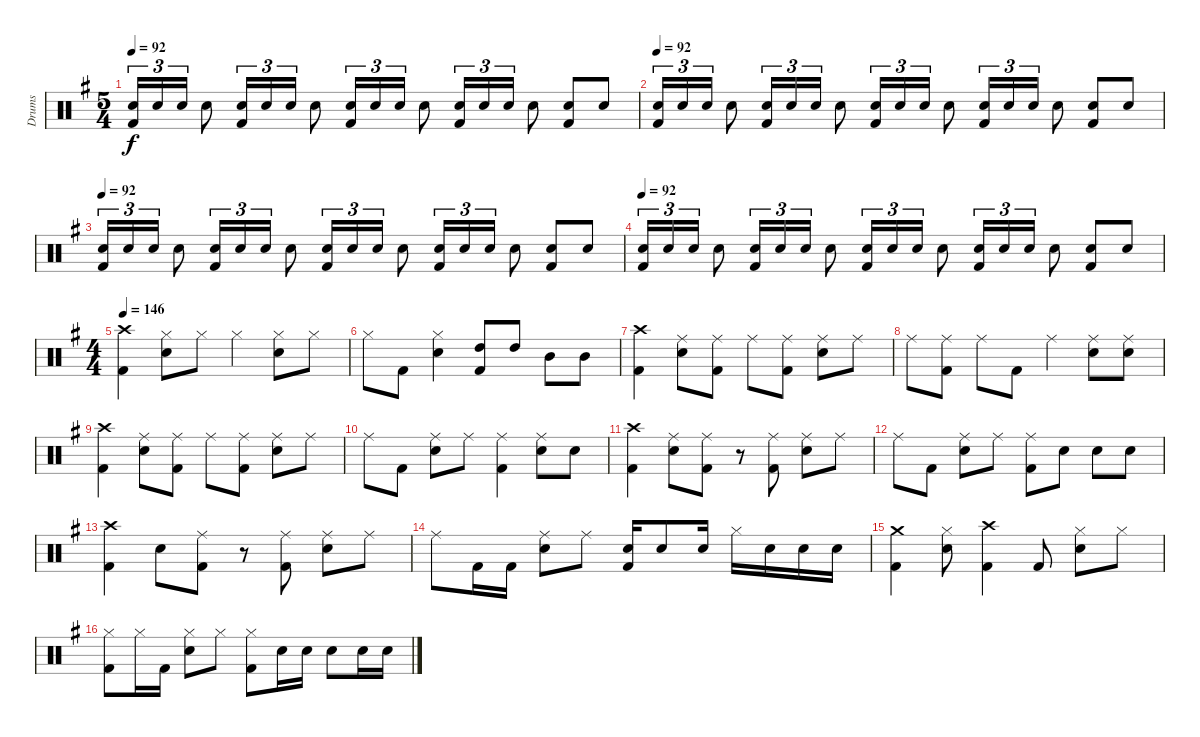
\track ("Drums" "Drums") {instrument percussion}
\staff {score}
\articulation defaults
\ts (5 4)
\tempo 92
\clef neutral
\ks g
("Kick (hit) 2" "Snare (hit) 2").16{tu (3 2) dy f} "Snare (hit) 2".16{tu (3 2)} "Snare (hit) 2".16{tu (3 2)} "Snare (hit) 2".8 ("Kick (hit) 2" "Snare (hit) 2").16{tu (3 2)} "Snare (hit) 2".16{tu (3 2)} "Snare (hit) 2".16{tu (3 2)} "Snare (hit) 2".8 ("Kick (hit) 2" "Snare (hit) 2").16{tu (3 2)} "Snare (hit) 2".16{tu (3 2)} "Snare (hit) 2".16{tu (3 2)} "Snare (hit) 2".8 ("Kick (hit) 2" "Snare (hit) 2").16{tu (3 2)} "Snare (hit) 2".16{tu (3 2)} "Snare (hit) 2".16{tu (3 2)} "Snare (hit) 2".8 ("Kick (hit) 2" "Snare (hit) 2").8 "Snare (hit) 2".8 |
\tempo 92
("Kick (hit) 2" "Snare (hit) 2").16{tu (3 2)} "Snare (hit) 2".16{tu (3 2)} "Snare (hit) 2".16{tu (3 2)} "Snare (hit) 2".8 ("Kick (hit) 2" "Snare (hit) 2").16{tu (3 2)} "Snare (hit) 2".16{tu (3 2)} "Snare (hit) 2".16{tu (3 2)} "Snare (hit) 2".8 ("Kick (hit) 2" "Snare (hit) 2").16{tu (3 2)} "Snare (hit) 2".16{tu (3 2)} "Snare (hit) 2".16{tu (3 2)} "Snare (hit) 2".8 ("Kick (hit) 2" "Snare (hit) 2").16{tu (3 2)} "Snare (hit) 2".16{tu (3 2)} "Snare (hit) 2".16{tu (3 2)} "Snare (hit) 2".8 ("Kick (hit) 2" "Snare (hit) 2").8 "Snare (hit) 2".8 |
\tempo 92
("Kick (hit) 2" "Snare (hit) 2").16{tu (3 2)} "Snare (hit) 2".16{tu (3 2)} "Snare (hit) 2".16{tu (3 2)} "Snare (hit) 2".8 ("Kick (hit) 2" "Snare (hit) 2").16{tu (3 2)} "Snare (hit) 2".16{tu (3 2)} "Snare (hit) 2".16{tu (3 2)} "Snare (hit) 2".8 ("Kick (hit) 2" "Snare (hit) 2").16{tu (3 2)} "Snare (hit) 2".16{tu (3 2)} "Snare (hit) 2".16{tu (3 2)} "Snare (hit) 2".8 ("Kick (hit) 2" "Snare (hit) 2").16{tu (3 2)} "Snare (hit) 2".16{tu (3 2)} "Snare (hit) 2".16{tu (3 2)} "Snare (hit) 2".8 ("Kick (hit) 2" "Snare (hit) 2").8 "Snare (hit) 2".8 |
\tempo 92
("Kick (hit) 2" "Snare (hit) 2").16{tu (3 2)} "Snare (hit) 2".16{tu (3 2)} "Snare (hit) 2".16{tu (3 2)} "Snare (hit) 2".8 ("Kick (hit) 2" "Snare (hit) 2").16{tu (3 2)} "Snare (hit) 2".16{tu (3 2)} "Snare (hit) 2".16{tu (3 2)} "Snare (hit) 2".8 ("Kick (hit) 2" "Snare (hit) 2").16{tu (3 2)} "Snare (hit) 2".16{tu (3 2)} "Snare (hit) 2".16{tu (3 2)} "Snare (hit) 2".8 ("Kick (hit) 2" "Snare (hit) 2").16{tu (3 2)} "Snare (hit) 2".16{tu (3 2)} "Snare (hit) 2".16{tu (3 2)} "Snare (hit) 2".8 ("Kick (hit) 2" "Snare (hit) 2").8 "Snare (hit) 2".8 |
\ts (4 4)
\tempo 146
("Kick (hit) 2" "Crash high (hit)").4 ("Snare (hit) 2" "Hi-Hat (closed)").8 "Hi-Hat (closed)".8 "Hi-Hat (closed)".4 ("Snare (hit) 2" "Hi-Hat (closed)").8 "Hi-Hat (closed)".8 |
"Hi-Hat (closed)".8 "Kick (hit) 2".8 ("Snare (hit) 2" "Hi-Hat (closed)").4 ("Kick (hit) 2" "High Tom (hit)").8 "High Tom (hit)".8 "Mid Tom (hit)".8 "Mid Tom (hit)".8 |
("Kick (hit) 2" "Crash high (hit)").4 ("Snare (hit) 2" "Ride (middle)").8 ("Kick (hit) 2" "Ride (middle)").8 "Ride (middle)".8 ("Kick (hit) 2" "Ride (middle)").8 ("Snare (hit) 2" "Ride (middle)").8 "Ride (middle)".8 |
"Ride (middle)".8 ("Kick (hit) 2" "Ride (middle)").8 "Ride (middle)".8 "Kick (hit) 2".8 "Ride (middle)".4 ("Snare (hit) 2" "Ride (middle)").8 ("Snare (hit) 2" "Ride (middle)").8 |
("Kick (hit) 2" "Crash high (hit)").4 ("Snare (hit) 2" "Ride (middle)").8 ("Kick (hit) 2" "Ride (middle)").8 "Ride (middle)".8 ("Kick (hit) 2" "Ride (middle)").8 ("Snare (hit) 2" "Ride (middle)").8 "Ride (middle)".8 |
"Ride (middle)".8 "Kick (hit) 2".8 ("Snare (hit) 2" "Ride (middle)").8 "Ride (middle)".8 ("Kick (hit) 2" "Ride (middle)").4 ("Snare (hit) 2" "Ride (middle)").8 "Snare (hit) 2".8 |
("Kick (hit) 2" "Crash high (hit)").4 ("Snare (hit) 2" "Ride (middle)").8 ("Kick (hit) 2" "Ride (middle)").8 r.8 ("Kick (hit) 2" "Ride (middle)").8 ("Snare (hit) 2" "Ride (middle)").8 "Ride (middle)".8 |
"Ride (middle)".8 "Kick (hit) 2".8 ("Snare (hit) 2" "Ride (middle)").8 "Ride (middle)".8 ("Kick (hit) 2" "Ride (middle)").8 "Snare (hit) 2".8 "Snare (hit) 2".8 "Snare (hit) 2".8 |
("Kick (hit) 2" "Crash high (hit)").4 "Snare (hit) 2".8 ("Kick (hit) 2" "Ride (middle)").8 r.8 ("Kick (hit) 2" "Ride (middle)").8 ("Snare (hit) 2" "Ride (middle)").8 "Ride (middle)".8 |
"Ride (middle)".8 "Kick (hit) 2".16 "Kick (hit) 2".16 ("Snare (hit) 2" "Ride (middle)").8 "Ride (middle)".8 ("Kick (hit) 2" "Snare (hit) 2").16 "Snare (hit) 2".8 "Snare (hit) 2".16 "Hi-Hat (closed)".16 "Snare (hit) 2".16 "Snare (hit) 2".16 "Snare (hit) 2".16 |
("Kick (hit) 2" "Crash medium (hit)").4 ("Snare (hit) 2" "Hi-Hat (closed)").8 ("Kick (hit) 2" "Crash high (hit)").4 "Kick (hit) 2".8 ("Snare (hit) 2" "Hi-Hat (closed)").8 "Hi-Hat (closed)".8 |
("Kick (hit) 2" "Hi-Hat (closed)").8 "Hi-Hat (closed)".16 "Kick (hit) 2".16 ("Snare (hit) 2" "Hi-Hat (closed)").8 "Hi-Hat (closed)".8 ("Kick (hit) 2" "Hi-Hat (closed)").8 "Snare (hit) 2".16 "Snare (hit) 2".16 "Snare (hit) 2".8 "Snare (hit) 2".16 "Snare (hit) 2".16
